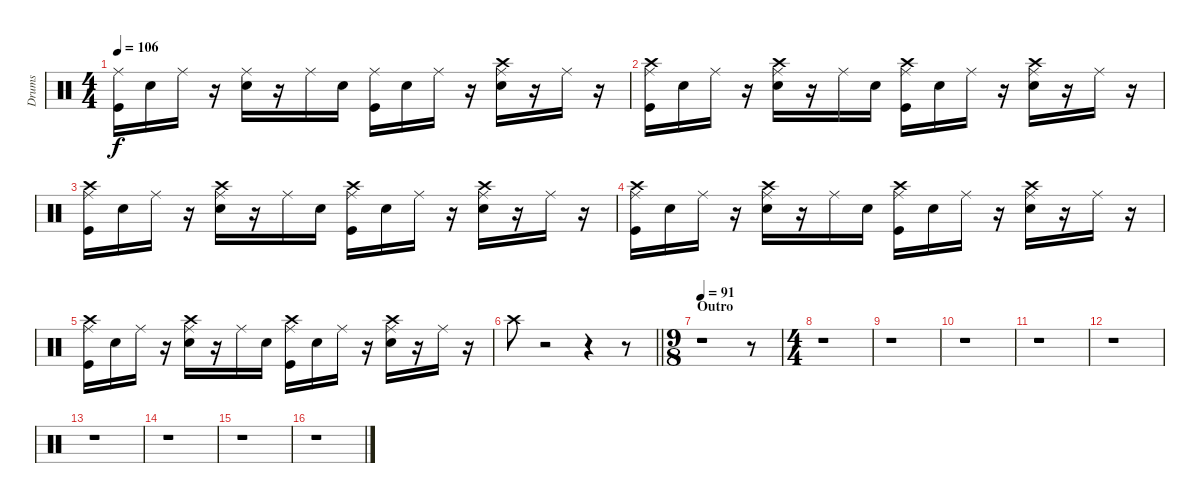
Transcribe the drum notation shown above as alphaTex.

\track ("Drums" "Drums") {instrument percussion}
\staff {score}
\articulation defaults
\ts (4 4)
\tempo 106
\clef neutral
\ks c
("Ride (middle)" "Kick (hit)").16{dy f} "Electric Snare (hit)".16 "Ride (middle)".16 r.16 ("Ride (middle)" "Electric Snare (hit)").16 r.16 "Ride (middle)".16 "Electric Snare (hit)".16 ("Ride (middle)" "Kick (hit)").16 "Electric Snare (hit)".16 "Ride (middle)".16 r.16 ("Crash high (hit)" "Ride (middle)" "Electric Snare (hit)").16 r.16 "Ride (middle)".16 r.16 |
("Crash high (hit)" "Ride (middle)" "Kick (hit)").16 "Electric Snare (hit)".16 "Ride (middle)".16 r.16 ("Crash high (hit)" "Ride (middle)" "Electric Snare (hit)").16 r.16 "Ride (middle)".16 "Electric Snare (hit)".16 ("Crash high (hit)" "Ride (middle)" "Kick (hit)").16 "Electric Snare (hit)".16 "Ride (middle)".16 r.16 ("Crash high (hit)" "Ride (middle)" "Electric Snare (hit)").16 r.16 "Ride (middle)".16 r.16 |
("Crash high (hit)" "Ride (middle)" "Kick (hit)").16 "Electric Snare (hit)".16 "Ride (middle)".16 r.16 ("Crash high (hit)" "Ride (middle)" "Electric Snare (hit)").16 r.16 "Ride (middle)".16 "Electric Snare (hit)".16 ("Crash high (hit)" "Ride (middle)" "Kick (hit)").16 "Electric Snare (hit)".16 "Ride (middle)".16 r.16 ("Crash high (hit)" "Ride (middle)" "Electric Snare (hit)").16 r.16 "Ride (middle)".16 r.16 |
("Crash high (hit)" "Ride (middle)" "Kick (hit)").16 "Electric Snare (hit)".16 "Ride (middle)".16 r.16 ("Crash high (hit)" "Ride (middle)" "Electric Snare (hit)").16 r.16 "Ride (middle)".16 "Electric Snare (hit)".16 ("Crash high (hit)" "Ride (middle)" "Kick (hit)").16 "Electric Snare (hit)".16 "Ride (middle)".16 r.16 ("Crash high (hit)" "Ride (middle)" "Electric Snare (hit)").16 r.16 "Ride (middle)".16 r.16 |
("Crash high (hit)" "Ride (middle)" "Kick (hit)").16 "Electric Snare (hit)".16 "Ride (middle)".16 r.16 ("Crash high (hit)" "Ride (middle)" "Electric Snare (hit)").16 r.16 "Ride (middle)".16 "Electric Snare (hit)".16 ("Crash high (hit)" "Ride (middle)" "Kick (hit)").16 "Electric Snare (hit)".16 "Ride (middle)".16 r.16 ("Crash high (hit)" "Ride (middle)" "Electric Snare (hit)").16 r.16 "Ride (middle)".16 r.16 |
\barLineRight lightlight "Crash high (hit)".8
r.2 r.4 r.8 |
\ts (9 8)
\section ("" "Outro")
\tempo 91
r.1 r.8 |
\ts (4 4)
r.1 |
r.1 |
r.1 |
r.1 |
r.1 |
r.1 |
r.1 |
r.1 |
r.1
